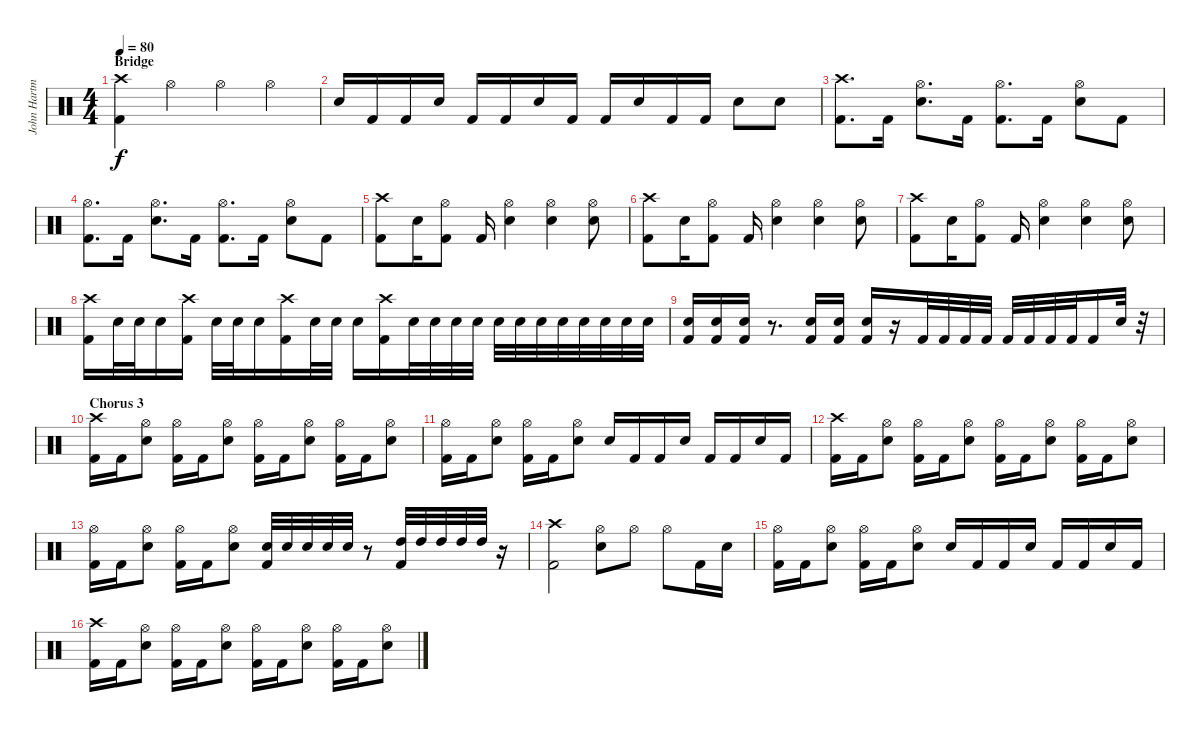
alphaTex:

\track ("John Hartman" "John Hartm") {instrument percussion}
\staff {score}
\articulation defaults
\ts (4 4)
\section ("" "Bridge")
\tempo 80
\clef neutral
\ks c
("Crash high (hit)" "Kick (hit) 2").4{dy f} "Hi-Hat (open)".4 "Hi-Hat (open)".4 "Hi-Hat (open)".4 |
"Electric Snare (hit)".16 "Kick (hit) 2".16 "Kick (hit) 2".16 "Electric Snare (hit)".16 "Kick (hit) 2".16 "Kick (hit) 2".16 "Electric Snare (hit)".16 "Kick (hit) 2".16 "Kick (hit) 2".16 "Electric Snare (hit)".16 "Kick (hit) 2".16 "Kick (hit) 2".16 "Electric Snare (hit)".8 "Electric Snare (hit)".8 |
("Crash high (hit)" "Kick (hit) 2").8{d} "Kick (hit) 2".16 ("Hi-Hat (open)" "Electric Snare (hit)").8{d} "Kick (hit) 2".16 ("Hi-Hat (open)" "Kick (hit) 2").8{d} "Kick (hit) 2".16 ("Hi-Hat (open)" "Electric Snare (hit)").8 "Kick (hit) 2".8 |
("Hi-Hat (open)" "Kick (hit) 2").8{d} "Kick (hit) 2".16 ("Hi-Hat (open)" "Electric Snare (hit)").8{d} "Kick (hit) 2".16 ("Hi-Hat (open)" "Kick (hit) 2").8{d} "Kick (hit) 2".16 ("Hi-Hat (open)" "Electric Snare (hit)").8 "Kick (hit) 2".8 |
("Crash high (hit)" "Kick (hit) 2").8 "Electric Snare (hit)".16 ("Hi-Hat (open)" "Kick (hit) 2").8 "Kick (hit) 2".16 ("Hi-Hat (open)" "Electric Snare (hit)").4 ("Hi-Hat (open)" "Electric Snare (hit)").4 ("Hi-Hat (open)" "Electric Snare (hit)").8 |
("Crash high (hit)" "Kick (hit) 2").8 "Electric Snare (hit)".16 ("Hi-Hat (open)" "Kick (hit) 2").8 "Kick (hit) 2".16 ("Hi-Hat (open)" "Electric Snare (hit)").4 ("Hi-Hat (open)" "Electric Snare (hit)").4 ("Hi-Hat (open)" "Electric Snare (hit)").8 |
("Crash high (hit)" "Kick (hit) 2").8 "Electric Snare (hit)".16 ("Hi-Hat (open)" "Kick (hit) 2").8 "Kick (hit) 2".16 ("Hi-Hat (open)" "Electric Snare (hit)").4 ("Hi-Hat (open)" "Electric Snare (hit)").4 ("Hi-Hat (open)" "Electric Snare (hit)").8 |
("Crash high (hit)" "Kick (hit) 2").16 "Electric Snare (hit)".32 "Electric Snare (hit)".32 "Electric Snare (hit)".16 ("Crash high (hit)" "Kick (hit) 2").16 "Electric Snare (hit)".32 "Electric Snare (hit)".32 "Electric Snare (hit)".16 ("Crash high (hit)" "Kick (hit) 2").16 "Electric Snare (hit)".32 "Electric Snare (hit)".32 "Electric Snare (hit)".16 ("Crash high (hit)" "Kick (hit) 2").16 "Electric Snare (hit)".32 "Electric Snare (hit)".32 "Electric Snare (hit)".32 "Electric Snare (hit)".32 "Electric Snare (hit)".32 "Electric Snare (hit)".32 "Electric Snare (hit)".32 "Electric Snare (hit)".32 "Electric Snare (hit)".32 "Electric Snare (hit)".32 "Electric Snare (hit)".32 "Electric Snare (hit)".32 |
("Kick (hit) 2" "Electric Snare (hit)").16 ("Kick (hit) 2" "Electric Snare (hit)").16 ("Kick (hit) 2" "Electric Snare (hit)").16 r.8{d} ("Kick (hit) 2" "Electric Snare (hit)").16 ("Kick (hit) 2" "Electric Snare (hit)").16 ("Kick (hit) 2" "Electric Snare (hit)").16 r.16 "Kick (hit) 2".32 "Kick (hit) 2".32 "Kick (hit) 2".32 "Kick (hit) 2".32 "Kick (hit) 2".32 "Kick (hit) 2".32 "Kick (hit) 2".32 "Kick (hit) 2".32 "Kick (hit) 2".16 "Electric Snare (hit)".32 r.32 |
\section ("" "Chorus 3")
("Crash high (hit)" "Kick (hit) 2").16 "Kick (hit) 2".16 ("Hi-Hat (open)" "Electric Snare (hit)").8 ("Hi-Hat (open)" "Kick (hit) 2").16 "Kick (hit) 2".16 ("Hi-Hat (open)" "Electric Snare (hit)").8 ("Hi-Hat (open)" "Kick (hit) 2").16 "Kick (hit) 2".16 ("Hi-Hat (open)" "Electric Snare (hit)").8 ("Hi-Hat (open)" "Kick (hit) 2").16 "Kick (hit) 2".16 ("Hi-Hat (open)" "Electric Snare (hit)").8 |
("Hi-Hat (open)" "Kick (hit) 2").16 "Kick (hit) 2".16 ("Hi-Hat (open)" "Electric Snare (hit)").8 ("Hi-Hat (open)" "Kick (hit) 2").16 "Kick (hit) 2".16 ("Hi-Hat (open)" "Electric Snare (hit)").8 "Electric Snare (hit)".16 "Kick (hit) 2".16 "Kick (hit) 2".16 "Electric Snare (hit)".16 "Kick (hit) 2".16 "Kick (hit) 2".16 "Electric Snare (hit)".16 "Kick (hit) 2".16 |
("Crash high (hit)" "Kick (hit) 2").16 "Kick (hit) 2".16 ("Hi-Hat (open)" "Electric Snare (hit)").8 ("Hi-Hat (open)" "Kick (hit) 2").16 "Kick (hit) 2".16 ("Hi-Hat (open)" "Electric Snare (hit)").8 ("Hi-Hat (open)" "Kick (hit) 2").16 "Kick (hit) 2".16 ("Hi-Hat (open)" "Electric Snare (hit)").8 ("Hi-Hat (open)" "Kick (hit) 2").16 "Kick (hit) 2".16 ("Hi-Hat (open)" "Electric Snare (hit)").8 |
("Hi-Hat (open)" "Kick (hit) 2").16 "Kick (hit) 2".16 ("Hi-Hat (open)" "Electric Snare (hit)").8 ("Hi-Hat (open)" "Kick (hit) 2").16 "Kick (hit) 2".16 ("Hi-Hat (open)" "Electric Snare (hit)").8 ("Electric Snare (hit)" "Kick (hit) 2").32 "Electric Snare (hit)".32 "Electric Snare (hit)".32 "Electric Snare (hit)".32 "Electric Snare (hit)".32 r.8 ("Kick (hit) 2" "High Tom (hit)").32 "High Tom (hit)".32 "High Tom (hit)".32 "High Tom (hit)".32 "High Tom (hit)".32 r.16 |
("Crash high (hit)" "Kick (hit) 2").2 ("Hi-Hat (open)" "Electric Snare (hit)").8 "Hi-Hat (open)".8 "Hi-Hat (open)".8 "Kick (hit) 2".16 "Electric Snare (hit)".16 |
("Hi-Hat (open)" "Kick (hit) 2").16 "Kick (hit) 2".16 ("Hi-Hat (open)" "Electric Snare (hit)").8 ("Hi-Hat (open)" "Kick (hit) 2").16 "Kick (hit) 2".16 ("Hi-Hat (open)" "Electric Snare (hit)").8 "Electric Snare (hit)".16 "Kick (hit) 2".16 "Kick (hit) 2".16 "Electric Snare (hit)".16 "Kick (hit) 2".16 "Kick (hit) 2".16 "Electric Snare (hit)".16 "Kick (hit) 2".16 |
("Crash high (hit)" "Kick (hit) 2").16 "Kick (hit) 2".16 ("Hi-Hat (open)" "Electric Snare (hit)").8 ("Hi-Hat (open)" "Kick (hit) 2").16 "Kick (hit) 2".16 ("Hi-Hat (open)" "Electric Snare (hit)").8 ("Hi-Hat (open)" "Kick (hit) 2").16 "Kick (hit) 2".16 ("Hi-Hat (open)" "Electric Snare (hit)").8 ("Hi-Hat (open)" "Kick (hit) 2").16 "Kick (hit) 2".16 ("Hi-Hat (open)" "Electric Snare (hit)").8
